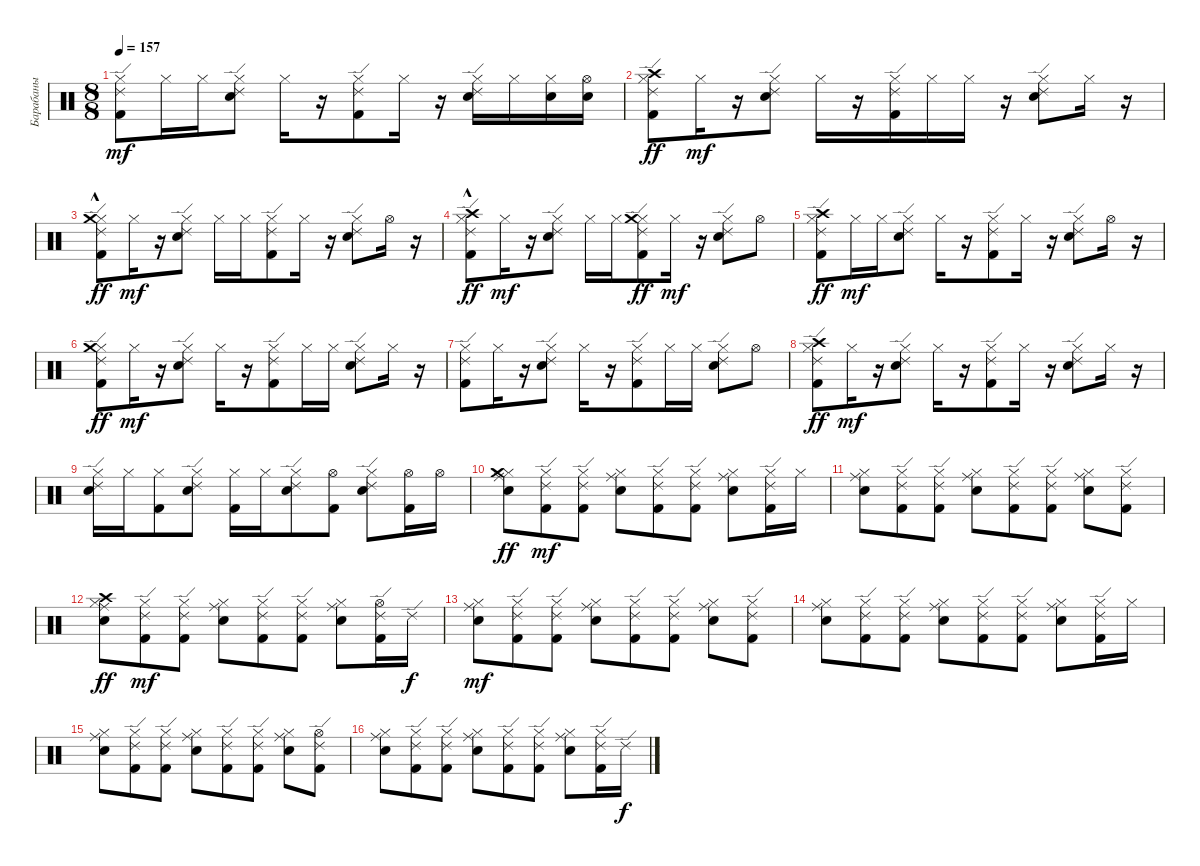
\track ("Барабаны" "Барабаны") {instrument percussion}
\staff {score}
\articulation defaults
\ts (8 8)
\tempo 157
\clef neutral
\ks c
("Kick (hit) 2" "Hi-Hat (closed)" "Ride (edge) 2").8{dy mf} "Hi-Hat (closed)".16 "Hi-Hat (closed)".16 ("Snare (hit) 2" "Hi-Hat (closed)" "Ride (edge) 2").8 "Hi-Hat (closed)".16 r.16 ("Kick (hit) 2" "Hi-Hat (closed)" "Ride (edge) 2").8 "Hi-Hat (closed)".16 r.16 ("Snare (hit) 2" "Hi-Hat (closed)" "Ride (edge) 2").16 "Hi-Hat (closed)".16 ("Snare (hit) 2" "Hi-Hat (closed)").16 ("Snare (hit) 2" "Hi-Hat (open)").16 |
("Kick (hit) 2" "Hi-Hat (closed)" "Ride (edge) 2" "Crash high (hit)").8{dy ff} "Hi-Hat (closed)".16{dy mf} r.16 ("Snare (hit) 2" "Hi-Hat (closed)" "Ride (edge) 2").8 "Hi-Hat (closed)".16 r.16 ("Kick (hit) 2" "Hi-Hat (closed)" "Ride (edge) 2").16 "Hi-Hat (closed)".16 "Hi-Hat (closed)".16 r.16 ("Snare (hit) 2" "Hi-Hat (closed)" "Ride (edge) 2").8 "Hi-Hat (closed)".16 r.16 |
("Kick (hit) 2" "Hi-Hat (closed)" "Ride (edge) 2" "Crash medium (hit)"{hac}).8{dy ff} "Hi-Hat (closed)".16{dy mf} r.16 ("Snare (hit) 2" "Hi-Hat (closed)" "Ride (edge) 2").8 "Hi-Hat (closed)".16 "Hi-Hat (closed)".16 ("Kick (hit) 2" "Hi-Hat (closed)" "Ride (edge) 2").8 "Hi-Hat (closed)".16 r.16 ("Snare (hit) 2" "Hi-Hat (closed)" "Ride (edge) 2").8 "Hi-Hat (open)".16 r.16 |
("Kick (hit) 2" "Hi-Hat (closed)" "Ride (edge) 2" "Crash high (hit)"{hac}).8{dy ff} "Hi-Hat (closed)".16{dy mf} r.16 ("Snare (hit) 2" "Hi-Hat (closed)" "Ride (edge) 2").8 "Hi-Hat (closed)".16 "Hi-Hat (closed)".16 ("Kick (hit) 2" "Hi-Hat (closed)" "Ride (edge) 2" "Crash medium (hit)").8{dy ff} "Hi-Hat (closed)".16{dy mf} r.16 ("Snare (hit) 2" "Hi-Hat (closed)" "Ride (edge) 2").8 "Hi-Hat (open)".8 |
("Kick (hit) 2" "Hi-Hat (closed)" "Ride (edge) 2" "Crash high (hit)").8{dy ff} "Hi-Hat (closed)".16{dy mf} "Hi-Hat (closed)".16 ("Snare (hit) 2" "Hi-Hat (closed)" "Ride (edge) 2").8 "Hi-Hat (closed)".16 r.16 ("Kick (hit) 2" "Hi-Hat (closed)" "Ride (edge) 2").8 "Hi-Hat (closed)".16 r.16 ("Snare (hit) 2" "Hi-Hat (closed)" "Ride (edge) 2").8 "Hi-Hat (open)".16 r.16 |
("Kick (hit) 2" "Hi-Hat (closed)" "Ride (edge) 2" "Crash medium (hit)").8{dy ff} "Hi-Hat (closed)".16{dy mf} r.16 ("Snare (hit) 2" "Hi-Hat (closed)" "Ride (edge) 2").8 "Hi-Hat (closed)".16 r.16 ("Kick (hit) 2" "Hi-Hat (closed)" "Ride (edge) 2").8 "Hi-Hat (closed)".16 "Hi-Hat (closed)".16 ("Snare (hit) 2" "Hi-Hat (closed)" "Ride (edge) 2").8 "Hi-Hat (closed)".16 r.16 |
("Kick (hit) 2" "Hi-Hat (closed)" "Ride (edge) 2").8 "Hi-Hat (closed)".16 r.16 ("Snare (hit) 2" "Hi-Hat (closed)" "Ride (edge) 2").8 "Hi-Hat (closed)".16 r.16 ("Kick (hit) 2" "Hi-Hat (closed)" "Ride (edge) 2").8 "Hi-Hat (closed)".16 "Hi-Hat (closed)".16 ("Snare (hit) 2" "Hi-Hat (closed)" "Ride (edge) 2").8 "Hi-Hat (open)".8 |
("Kick (hit) 2" "Hi-Hat (closed)" "Ride (edge) 2" "Crash high (hit)").8{dy ff} "Hi-Hat (closed)".16{dy mf} r.16 ("Snare (hit) 2" "Hi-Hat (closed)" "Ride (edge) 2").8 "Hi-Hat (closed)".16 r.16 ("Kick (hit) 2" "Hi-Hat (closed)" "Ride (edge) 2").8 "Hi-Hat (closed)".16 r.16 ("Snare (hit) 2" "Hi-Hat (closed)" "Ride (edge) 2").8 "Hi-Hat (closed)".16 r.16 |
("Snare (hit) 2" "Hi-Hat (closed)" "Ride (edge) 2").16 "Hi-Hat (closed)".16 ("Kick (hit) 2" "Hi-Hat (closed)").8 ("Snare (hit) 2" "Hi-Hat (closed)" "Ride (edge) 2").8 ("Kick (hit) 2" "Hi-Hat (closed)").16 "Hi-Hat (closed)".16 ("Snare (hit) 2" "Hi-Hat (closed)" "Ride (edge) 2").8 ("Kick (hit) 2" "Hi-Hat (open)").8 ("Snare (hit) 2" "Hi-Hat (closed)" "Ride (edge) 2").8 ("Kick (hit) 2" "Hi-Hat (open)").16 "Hi-Hat (open)".16 |
("Snare (hit) 2" "Hi-Hat (closed)" "Ride (middle)" "Crash medium (hit)").8{dy ff} ("Kick (hit) 2" "Hi-Hat (closed)" "Ride (edge) 2").8{dy mf} ("Kick (hit) 2" "Hi-Hat (closed)" "Ride (edge) 2").8 ("Snare (hit) 2" "Hi-Hat (closed)" "Ride (middle)").8 ("Kick (hit) 2" "Hi-Hat (closed)" "Ride (edge) 2").8 ("Kick (hit) 2" "Hi-Hat (closed)" "Ride (edge) 2").8 ("Snare (hit) 2" "Hi-Hat (closed)" "Ride (middle)").8 ("Kick (hit) 2" "Hi-Hat (closed)" "Ride (edge) 2").16 "Hi-Hat (closed)".16 |
("Snare (hit) 2" "Hi-Hat (closed)" "Ride (middle)").8 ("Kick (hit) 2" "Hi-Hat (closed)" "Ride (edge) 2").8 ("Kick (hit) 2" "Hi-Hat (closed)" "Ride (edge) 2").8 ("Snare (hit) 2" "Hi-Hat (closed)" "Ride (middle)").8 ("Kick (hit) 2" "Hi-Hat (closed)" "Ride (edge) 2").8 ("Kick (hit) 2" "Hi-Hat (closed)" "Ride (edge) 2").8 ("Snare (hit) 2" "Hi-Hat (closed)" "Ride (middle)").8 ("Kick (hit) 2" "Hi-Hat (closed)" "Ride (edge) 2").8 |
("Snare (hit) 2" "Hi-Hat (closed)" "Ride (middle)" "Crash high (hit)").8{dy ff} ("Kick (hit) 2" "Hi-Hat (closed)" "Ride (edge) 2").8{dy mf} ("Kick (hit) 2" "Hi-Hat (closed)" "Ride (edge) 2").8 ("Snare (hit) 2" "Hi-Hat (closed)" "Ride (middle)").8 ("Kick (hit) 2" "Hi-Hat (closed)" "Ride (edge) 2").8 ("Kick (hit) 2" "Hi-Hat (closed)" "Ride (edge) 2").8 ("Snare (hit) 2" "Hi-Hat (closed)" "Ride (middle)").8 ("Kick (hit) 2" "Hi-Hat (open)" "Ride (edge) 2").16 "Ride (edge) 2".16{dy f} |
("Snare (hit) 2" "Hi-Hat (closed)" "Ride (middle)").8{dy mf} ("Kick (hit) 2" "Hi-Hat (closed)" "Ride (edge) 2").8 ("Kick (hit) 2" "Hi-Hat (closed)" "Ride (edge) 2").8 ("Snare (hit) 2" "Hi-Hat (closed)" "Ride (middle)").8 ("Kick (hit) 2" "Hi-Hat (closed)" "Ride (edge) 2").8 ("Kick (hit) 2" "Hi-Hat (closed)" "Ride (edge) 2").8 ("Snare (hit) 2" "Hi-Hat (closed)" "Ride (middle)").8 ("Kick (hit) 2" "Hi-Hat (closed)" "Ride (edge) 2").8 |
("Snare (hit) 2" "Hi-Hat (closed)" "Ride (middle)").8 ("Kick (hit) 2" "Hi-Hat (closed)" "Ride (edge) 2").8 ("Kick (hit) 2" "Hi-Hat (closed)" "Ride (edge) 2").8 ("Snare (hit) 2" "Hi-Hat (closed)" "Ride (middle)").8 ("Kick (hit) 2" "Hi-Hat (closed)" "Ride (edge) 2").8 ("Kick (hit) 2" "Hi-Hat (closed)" "Ride (edge) 2").8 ("Snare (hit) 2" "Hi-Hat (closed)" "Ride (middle)").8 ("Kick (hit) 2" "Hi-Hat (closed)" "Ride (edge) 2").16 "Hi-Hat (closed)".16 |
("Snare (hit) 2" "Hi-Hat (closed)" "Ride (middle)").8 ("Kick (hit) 2" "Hi-Hat (closed)" "Ride (edge) 2").8 ("Kick (hit) 2" "Hi-Hat (closed)" "Ride (edge) 2").8 ("Snare (hit) 2" "Hi-Hat (closed)" "Ride (middle)").8 ("Kick (hit) 2" "Hi-Hat (closed)" "Ride (edge) 2").8 ("Kick (hit) 2" "Hi-Hat (closed)" "Ride (edge) 2").8 ("Snare (hit) 2" "Hi-Hat (closed)" "Ride (middle)").8 ("Kick (hit) 2" "Hi-Hat (open)" "Ride (edge) 2").8 |
("Snare (hit) 2" "Hi-Hat (closed)" "Ride (middle)").8 ("Kick (hit) 2" "Hi-Hat (closed)" "Ride (edge) 2").8 ("Kick (hit) 2" "Hi-Hat (closed)" "Ride (edge) 2").8 ("Snare (hit) 2" "Hi-Hat (closed)" "Ride (middle)").8 ("Kick (hit) 2" "Hi-Hat (closed)" "Ride (edge) 2").8 ("Kick (hit) 2" "Hi-Hat (closed)" "Ride (edge) 2").8 ("Snare (hit) 2" "Hi-Hat (closed)" "Ride (middle)").8 ("Kick (hit) 2" "Hi-Hat (closed)" "Ride (edge) 2").16 "Ride (edge) 2".16{dy f}
